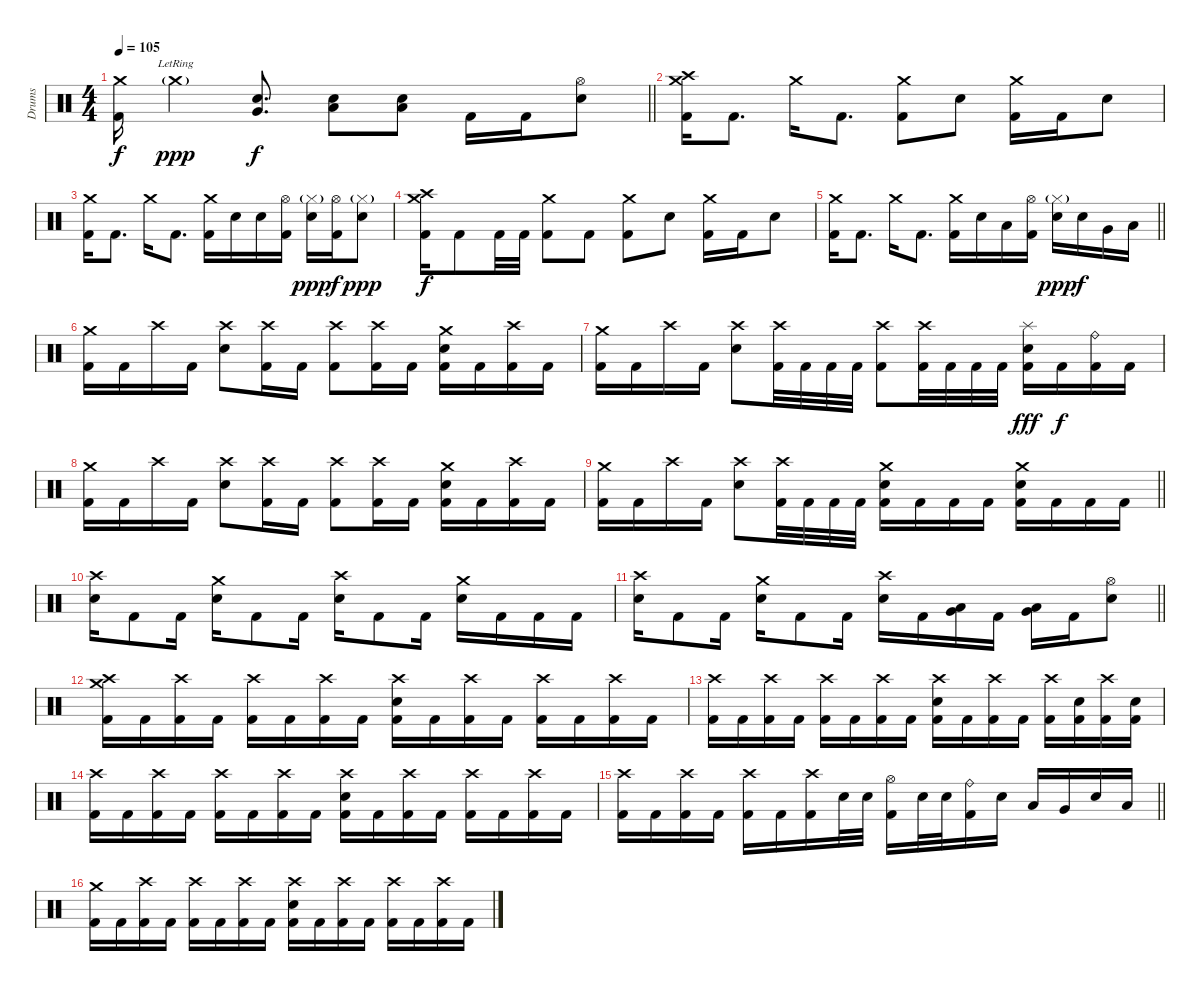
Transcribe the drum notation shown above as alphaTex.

\track ("Drums" "Drums") {instrument percussion}
\staff {score}
\articulation defaults
\ts (4 4)
\section ("" "")
\tempo 105
\clef neutral
\barLineRight lightlight
\ks c
("Crash medium (hit)" "Kick (hit) 2").16{dy f} "Crash medium (hit)"{g lr}.4{dy ppp} ("Very Low Tom (hit)" "Electric Snare (hit)").8{d dy f} ("Low Floor Tom (hit)" "Electric Snare (hit)").8 ("Low Floor Tom (hit)" "Electric Snare (hit)").8 "Kick (hit) 2".16 "Kick (hit) 2".16 ("Hi-Hat (open)" "Electric Snare (hit)").8 |
\section ("" "")
("Crash medium (hit)" "Crash high (hit)" "Kick (hit) 2").16 "Kick (hit) 2".8{d} "Crash medium (hit)".16 "Kick (hit) 2".8{d} ("Crash medium (hit)" "Kick (hit) 2").8 "Electric Snare (hit)".8 ("Crash medium (hit)" "Kick (hit) 2").16 "Kick (hit) 2".16 "Electric Snare (hit)".8 |
("Crash medium (hit)" "Kick (hit) 2").16 "Kick (hit) 2".8{d} "Crash medium (hit)".16 "Kick (hit) 2".8{d} ("Crash medium (hit)" "Kick (hit) 2").16 "Electric Snare (hit)".16 "Electric Snare (hit)".16 ("Hi-Hat (open)" "Kick (hit) 2").16 ("Hi-Hat (closed)"{g} "Electric Snare (hit)").16{dy ppp} ("Hi-Hat (open)" "Kick (hit) 2").16{dy f} ("Hi-Hat (closed)"{g} "Electric Snare (hit)").8{dy ppp} |
("Crash medium (hit)" "Crash high (hit)" "Kick (hit) 2").16{dy f} "Kick (hit) 2".8 "Kick (hit) 2".32 "Kick (hit) 2".32 ("Crash medium (hit)" "Kick (hit) 2").8 "Kick (hit) 2".8 ("Crash medium (hit)" "Kick (hit) 2").8 "Electric Snare (hit)".8 ("Crash medium (hit)" "Kick (hit) 2").16 "Kick (hit) 2".16 "Electric Snare (hit)".8 |
\barLineRight lightlight
("Crash medium (hit)" "Kick (hit) 2").16 "Kick (hit) 2".8{d} "Crash medium (hit)".16 "Kick (hit) 2".8{d} ("Crash medium (hit)" "Kick (hit) 2").16 "Electric Snare (hit)".16 "Low Tom (hit)".16 ("Hi-Hat (open)" "Kick (hit) 2").16 ("Hi-Hat (closed)"{g} "Electric Snare (hit)").16{dy ppp} "Electric Snare (hit)".16{dy f} "Very Low Tom (hit)".16 "Low Floor Tom (hit)".16 |
\section ("" "")
("Crash medium (hit)" "Kick (hit) 2").16 "Kick (hit) 2".16 "Crash high (hit)".16 "Kick (hit) 2".16 ("Crash high (hit)" "Electric Snare (hit)").8 ("Crash high (hit)" "Kick (hit) 2").16 "Kick (hit) 2".16 ("Crash high (hit)" "Kick (hit) 2").8 ("Crash high (hit)" "Kick (hit) 2").16 "Kick (hit) 2".16 ("Crash medium (hit)" "Electric Snare (hit)" "Kick (hit) 2").16 "Kick (hit) 2".16 ("Crash high (hit)" "Kick (hit) 2").16 "Kick (hit) 2".16 |
("Crash medium (hit)" "Kick (hit) 2").16 "Kick (hit) 2".16 "Crash high (hit)".16 "Kick (hit) 2".16 ("Crash high (hit)" "Electric Snare (hit)").8 ("Crash high (hit)" "Kick (hit) 2").32 "Kick (hit) 2".32 "Kick (hit) 2".32 "Kick (hit) 2".32 ("Crash high (hit)" "Kick (hit) 2").8 ("Crash high (hit)" "Kick (hit) 2").32 "Kick (hit) 2".32 "Kick (hit) 2".32 "Kick (hit) 2".32 ("Splash (hit)" "Electric Snare (hit)" "Kick (hit) 2").16{dy fff} "Kick (hit) 2".16{dy f} ("Ride (bell)" "Kick (hit) 2").16 "Kick (hit) 2".16 |
("Crash medium (hit)" "Kick (hit) 2").16 "Kick (hit) 2".16 "Crash high (hit)".16 "Kick (hit) 2".16 ("Crash high (hit)" "Electric Snare (hit)").8 ("Crash high (hit)" "Kick (hit) 2").16 "Kick (hit) 2".16 ("Crash high (hit)" "Kick (hit) 2").8 ("Crash high (hit)" "Kick (hit) 2").16 "Kick (hit) 2".16 ("Crash medium (hit)" "Electric Snare (hit)" "Kick (hit) 2").16 "Kick (hit) 2".16 ("Crash high (hit)" "Kick (hit) 2").16 "Kick (hit) 2".16 |
\barLineRight lightlight
("Crash medium (hit)" "Kick (hit) 2").16 "Kick (hit) 2".16 "Crash high (hit)".16 "Kick (hit) 2".16 ("Crash high (hit)" "Electric Snare (hit)").8 ("Crash high (hit)" "Kick (hit) 2").32 "Kick (hit) 2".32 "Kick (hit) 2".32 "Kick (hit) 2".32 ("Crash medium (hit)" "Electric Snare (hit)" "Kick (hit) 2").16 "Kick (hit) 2".16 "Kick (hit) 2".16 "Kick (hit) 2".16 ("Crash medium (hit)" "Electric Snare (hit)" "Kick (hit) 2").16 "Kick (hit) 2".16 "Kick (hit) 2".16 "Kick (hit) 2".16 |
\section ("" "")
("Crash high (hit)" "Electric Snare (hit)").16 "Kick (hit) 2".8 "Kick (hit) 2".16 ("Crash medium (hit)" "Electric Snare (hit)").16 "Kick (hit) 2".8 "Kick (hit) 2".16 ("Crash high (hit)" "Electric Snare (hit)").16 "Kick (hit) 2".8 "Kick (hit) 2".16 ("Crash medium (hit)" "Electric Snare (hit)").16 "Kick (hit) 2".16 "Kick (hit) 2".16 "Kick (hit) 2".16 |
\barLineRight lightlight
("Crash high (hit)" "Electric Snare (hit)").16 "Kick (hit) 2".8 "Kick (hit) 2".16 ("Crash medium (hit)" "Electric Snare (hit)").16 "Kick (hit) 2".8 "Kick (hit) 2".16 ("Crash high (hit)" "Electric Snare (hit)").16 "Kick (hit) 2".16 ("Low Tom (hit)" "Very Low Tom (hit)").16 "Kick (hit) 2".16 ("Very Low Tom (hit)" "Low Floor Tom (hit)").16 "Kick (hit) 2".16 ("Hi-Hat (open)" "Electric Snare (hit)").8 |
\section ("" "")
("Crash high (hit)" "Crash medium (hit)" "Kick (hit) 2").16 "Kick (hit) 2".16 ("Crash high (hit)" "Kick (hit) 2").16 "Kick (hit) 2".16 ("Crash high (hit)" "Kick (hit) 2").16 "Kick (hit) 2".16 ("Crash high (hit)" "Kick (hit) 2").16 "Kick (hit) 2".16 ("Crash high (hit)" "Electric Snare (hit)" "Kick (hit) 2").16 "Kick (hit) 2".16 ("Crash high (hit)" "Kick (hit) 2").16 "Kick (hit) 2".16 ("Crash high (hit)" "Kick (hit) 2").16 "Kick (hit) 2".16 ("Crash high (hit)" "Kick (hit) 2").16 "Kick (hit) 2".16 |
("Crash high (hit)" "Kick (hit) 2").16 "Kick (hit) 2".16 ("Crash high (hit)" "Kick (hit) 2").16 "Kick (hit) 2".16 ("Crash high (hit)" "Kick (hit) 2").16 "Kick (hit) 2".16 ("Crash high (hit)" "Kick (hit) 2").16 "Kick (hit) 2".16 ("Crash high (hit)" "Electric Snare (hit)" "Kick (hit) 2").16 "Kick (hit) 2".16 ("Crash high (hit)" "Kick (hit) 2").16 "Kick (hit) 2".16 ("Crash high (hit)" "Kick (hit) 2").16 ("Electric Snare (hit)" "Kick (hit) 2").16 ("Crash high (hit)" "Kick (hit) 2").16 ("Electric Snare (hit)" "Kick (hit) 2").16 |
("Crash high (hit)" "Kick (hit) 2").16 "Kick (hit) 2".16 ("Crash high (hit)" "Kick (hit) 2").16 "Kick (hit) 2".16 ("Crash high (hit)" "Kick (hit) 2").16 "Kick (hit) 2".16 ("Crash high (hit)" "Kick (hit) 2").16 "Kick (hit) 2".16 ("Crash high (hit)" "Electric Snare (hit)" "Kick (hit) 2").16 "Kick (hit) 2".16 ("Crash high (hit)" "Kick (hit) 2").16 "Kick (hit) 2".16 ("Crash high (hit)" "Kick (hit) 2").16 "Kick (hit) 2".16 ("Crash high (hit)" "Kick (hit) 2").16 "Kick (hit) 2".16 |
\barLineRight lightlight
("Crash high (hit)" "Kick (hit) 2").16 "Kick (hit) 2".16 ("Crash high (hit)" "Kick (hit) 2").16 "Kick (hit) 2".16 ("Crash high (hit)" "Kick (hit) 2").16 "Kick (hit) 2".16 ("Crash high (hit)" "Kick (hit) 2").16 "Electric Snare (hit)".32 "Electric Snare (hit)".32 ("Hi-Hat (open)" "Kick (hit) 2").16 "Electric Snare (hit)".32 "Electric Snare (hit)".32 ("Ride (bell)" "Kick (hit) 2").16 "Electric Snare (hit)".16 "Low Tom (hit)".16 "Very Low Tom (hit)".16 "Electric Snare (hit)".16 "Low Floor Tom (hit)".16 |
\section ("" "")
("Crash medium (hit)" "Kick (hit) 2").16 "Kick (hit) 2".16 ("Crash high (hit)" "Kick (hit) 2").16 "Kick (hit) 2".16 ("Crash high (hit)" "Kick (hit) 2").16 "Kick (hit) 2".16 ("Crash high (hit)" "Kick (hit) 2").16 "Kick (hit) 2".16 ("Crash high (hit)" "Electric Snare (hit)" "Kick (hit) 2").16 "Kick (hit) 2".16 ("Crash high (hit)" "Kick (hit) 2").16 "Kick (hit) 2".16 ("Crash high (hit)" "Kick (hit) 2").16 "Kick (hit) 2".16 ("Crash high (hit)" "Kick (hit) 2").16 "Kick (hit) 2".16
